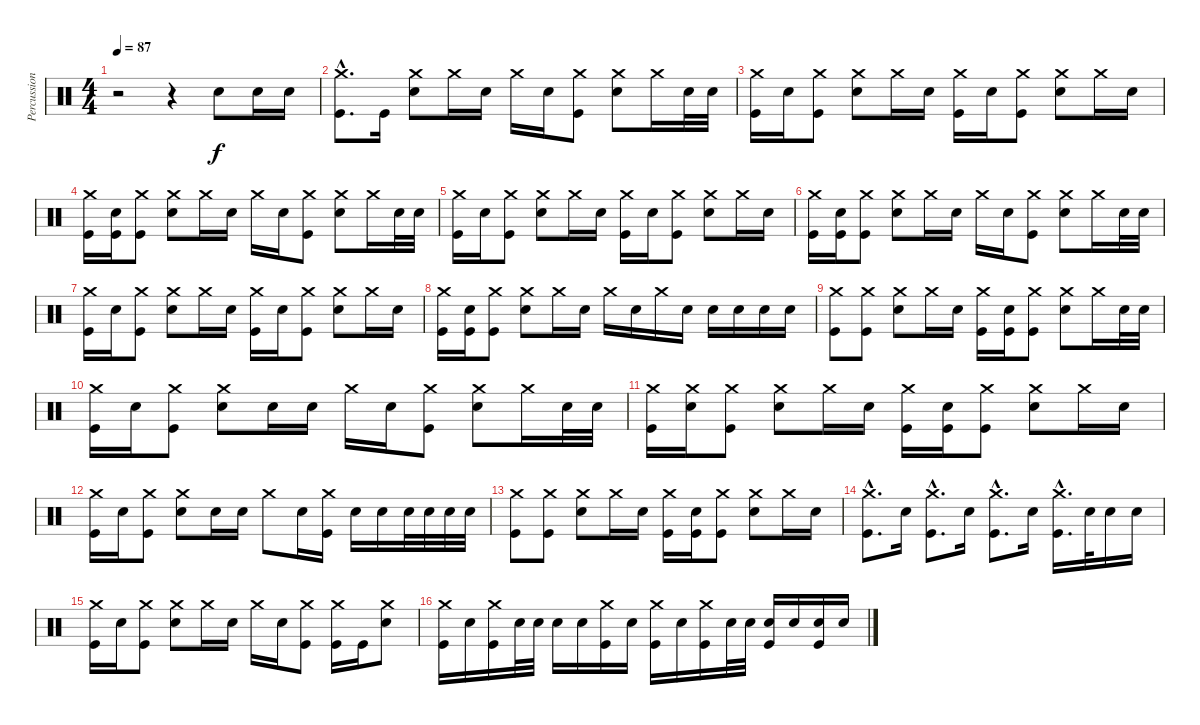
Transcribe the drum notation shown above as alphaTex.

\track ("Percussion" "Percussion") {instrument percussion}
\staff {score}
\articulation defaults
\ts (4 4)
\tempo 87
\clef neutral
\ks c
r.2{dy f} r.4 "Snare (hit) 2".8 "Snare (hit) 2".16 "Snare (hit) 2".16 |
("Crash medium (hit)"{hac} "Kick (hit)"{hac}).8{d} "Kick (hit)".16 ("Crash medium (hit)" "Snare (hit) 2").8 "Crash medium (hit)".16 "Snare (hit) 2".16 "Crash medium (hit)".16 "Snare (hit) 2".16 ("Crash medium (hit)" "Kick (hit)").8 ("Crash medium (hit)" "Snare (hit) 2").8 "Crash medium (hit)".16 "Snare (hit) 2".32 "Snare (hit) 2".32 |
("Crash medium (hit)" "Kick (hit)").16 "Snare (hit) 2".16 ("Crash medium (hit)" "Kick (hit)").8 ("Crash medium (hit)" "Snare (hit) 2").8 "Crash medium (hit)".16 "Snare (hit) 2".16 ("Crash medium (hit)" "Kick (hit)").16 "Snare (hit) 2".16 ("Crash medium (hit)" "Kick (hit)").8 ("Crash medium (hit)" "Snare (hit) 2").8 "Crash medium (hit)".16 "Snare (hit) 2".16 |
("Crash medium (hit)" "Kick (hit)").16 ("Snare (hit) 2" "Kick (hit)").16 ("Crash medium (hit)" "Kick (hit)").8 ("Crash medium (hit)" "Snare (hit) 2").8 "Crash medium (hit)".16 "Snare (hit) 2".16 "Crash medium (hit)".16 "Snare (hit) 2".16 ("Crash medium (hit)" "Kick (hit)").8 ("Crash medium (hit)" "Snare (hit) 2").8 "Crash medium (hit)".16 "Snare (hit) 2".32 "Snare (hit) 2".32 |
("Crash medium (hit)" "Kick (hit)").16 "Snare (hit) 2".16 ("Crash medium (hit)" "Kick (hit)").8 ("Crash medium (hit)" "Snare (hit) 2").8 "Crash medium (hit)".16 "Snare (hit) 2".16 ("Crash medium (hit)" "Kick (hit)").16 "Snare (hit) 2".16 ("Crash medium (hit)" "Kick (hit)").8 ("Crash medium (hit)" "Snare (hit) 2").8 "Crash medium (hit)".16 "Snare (hit) 2".16 |
("Crash medium (hit)" "Kick (hit)").16 ("Snare (hit) 2" "Kick (hit)").16 ("Crash medium (hit)" "Kick (hit)").8 ("Crash medium (hit)" "Snare (hit) 2").8 "Crash medium (hit)".16 "Snare (hit) 2".16 "Crash medium (hit)".16 "Snare (hit) 2".16 ("Crash medium (hit)" "Kick (hit)").8 ("Crash medium (hit)" "Snare (hit) 2").8 "Crash medium (hit)".16 "Snare (hit) 2".32 "Snare (hit) 2".32 |
("Crash medium (hit)" "Kick (hit)").16 "Snare (hit) 2".16 ("Crash medium (hit)" "Kick (hit)").8 ("Crash medium (hit)" "Snare (hit) 2").8 "Crash medium (hit)".16 "Snare (hit) 2".16 ("Crash medium (hit)" "Kick (hit)").16 "Snare (hit) 2".16 ("Crash medium (hit)" "Kick (hit)").8 ("Crash medium (hit)" "Snare (hit) 2").8 "Crash medium (hit)".16 "Snare (hit) 2".16 |
("Crash medium (hit)" "Kick (hit)").16 ("Snare (hit) 2" "Kick (hit)").16 ("Crash medium (hit)" "Kick (hit)").8 ("Crash medium (hit)" "Snare (hit) 2").8 "Crash medium (hit)".16 "Snare (hit) 2".16 "Crash medium (hit)".16 "Snare (hit) 2".16 "Crash medium (hit)".16 "Snare (hit) 2".16 "Snare (hit) 2".16 "Snare (hit) 2".16 "Snare (hit) 2".16 "Snare (hit) 2".16 |
("Crash medium (hit)" "Kick (hit)").8 ("Crash medium (hit)" "Kick (hit)").8 ("Crash medium (hit)" "Snare (hit) 2").8 "Crash medium (hit)".16 "Snare (hit) 2".16 ("Crash medium (hit)" "Kick (hit)").16 ("Snare (hit) 2" "Kick (hit)").16 ("Crash medium (hit)" "Kick (hit)").8 ("Crash medium (hit)" "Snare (hit) 2").8 "Crash medium (hit)".16 "Snare (hit) 2".32 "Snare (hit) 2".32 |
("Crash medium (hit)" "Kick (hit)").16 "Snare (hit) 2".16 ("Crash medium (hit)" "Kick (hit)").8 ("Crash medium (hit)" "Snare (hit) 2").8 "Snare (hit) 2".16 "Snare (hit) 2".16 "Crash medium (hit)".16 "Snare (hit) 2".16 ("Crash medium (hit)" "Kick (hit)").8 ("Crash medium (hit)" "Snare (hit) 2").8 "Crash medium (hit)".16 "Snare (hit) 2".32 "Snare (hit) 2".32 |
("Crash medium (hit)" "Kick (hit)").16 ("Crash medium (hit)" "Snare (hit) 2").16 ("Crash medium (hit)" "Kick (hit)").8 ("Crash medium (hit)" "Snare (hit) 2").8 "Crash medium (hit)".16 "Snare (hit) 2".16 ("Crash medium (hit)" "Kick (hit)").16 ("Snare (hit) 2" "Kick (hit)").16 ("Crash medium (hit)" "Kick (hit)").8 ("Crash medium (hit)" "Snare (hit) 2").8 "Crash medium (hit)".16 "Snare (hit) 2".16 |
("Crash medium (hit)" "Kick (hit)").16 "Snare (hit) 2".16 ("Crash medium (hit)" "Kick (hit)").8 ("Crash medium (hit)" "Snare (hit) 2").8 "Snare (hit) 2".16 "Snare (hit) 2".16 "Crash medium (hit)".8 "Snare (hit) 2".16 ("Crash medium (hit)" "Kick (hit)").16 "Snare (hit) 2".16 "Snare (hit) 2".16 "Snare (hit) 2".32 "Snare (hit) 2".32 "Snare (hit) 2".32 "Snare (hit) 2".32 |
("Crash medium (hit)" "Kick (hit)").8 ("Crash medium (hit)" "Kick (hit)").8 ("Crash medium (hit)" "Snare (hit) 2").8 "Crash medium (hit)".16 "Snare (hit) 2".16 ("Crash medium (hit)" "Kick (hit)").16 ("Snare (hit) 2" "Kick (hit)").16 ("Crash medium (hit)" "Kick (hit)").8 ("Crash medium (hit)" "Snare (hit) 2").8 "Crash medium (hit)".16 "Snare (hit) 2".16 |
("Crash medium (hit)"{hac} "Kick (hit)"{hac}).8{d} "Snare (hit) 2".16 ("Crash medium (hit)"{hac} "Kick (hit)"{hac}).8{d} "Snare (hit) 2".16 ("Crash medium (hit)"{hac} "Kick (hit)"{hac}).8{d} "Snare (hit) 2".16 ("Crash medium (hit)"{hac} "Kick (hit)"{hac}).16{d} "Snare (hit) 2".32 "Snare (hit) 2".16 "Snare (hit) 2".16 |
("Crash medium (hit)" "Kick (hit)").16 "Snare (hit) 2".16 ("Crash medium (hit)" "Kick (hit)").8 ("Crash medium (hit)" "Snare (hit) 2").8 "Crash medium (hit)".16 "Snare (hit) 2".16 "Crash medium (hit)".16 "Snare (hit) 2".16 ("Crash medium (hit)" "Kick (hit)").8 ("Crash medium (hit)" "Kick (hit)").16 "Kick (hit)".16 ("Crash medium (hit)" "Snare (hit) 2").8 |
("Crash medium (hit)" "Kick (hit)").16 "Snare (hit) 2".16 ("Crash medium (hit)" "Kick (hit)").16 "Snare (hit) 2".32 "Snare (hit) 2".32 "Snare (hit) 2".16 "Snare (hit) 2".16 ("Crash medium (hit)" "Kick (hit)").16 "Snare (hit) 2".16 ("Crash medium (hit)" "Kick (hit)").16 "Snare (hit) 2".16 ("Crash medium (hit)" "Kick (hit)").16 "Snare (hit) 2".32 "Snare (hit) 2".32 ("Snare (hit) 2" "Kick (hit)").16 "Snare (hit) 2".16 ("Snare (hit) 2" "Kick (hit)").16 "Snare (hit) 2".16
